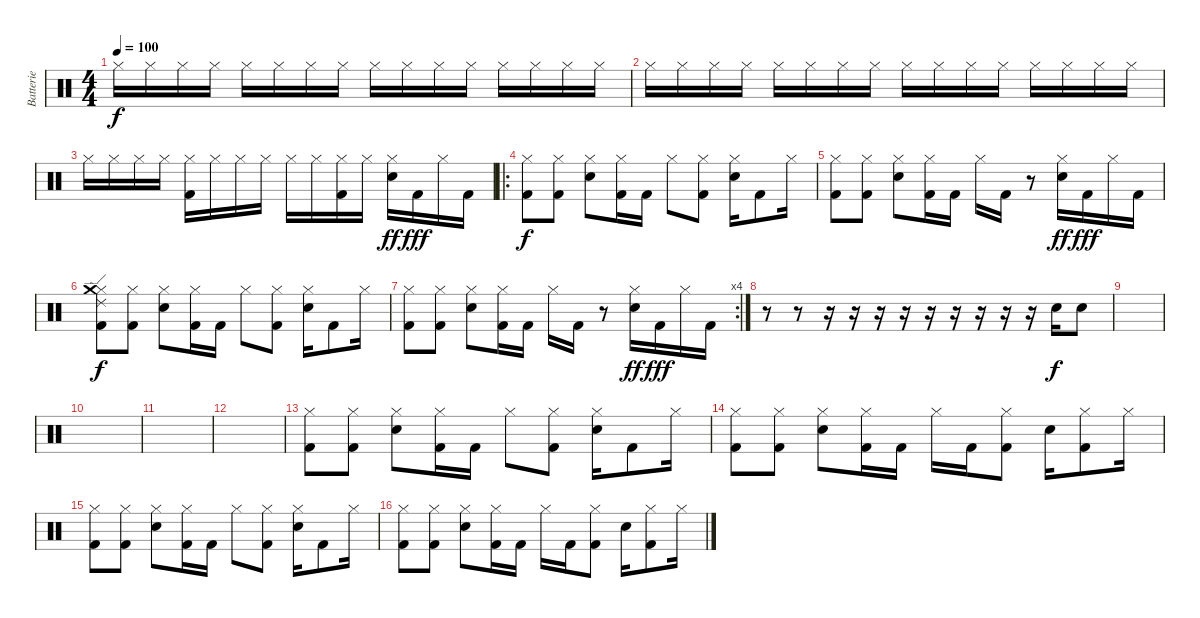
\track ("Batterie" "Batterie") {instrument percussion}
\staff {score}
\articulation defaults
\ts (4 4)
\tempo 100
\clef neutral
\ks c "Hi-Hat (closed)".16{dy f} "Hi-Hat (closed)".16 "Hi-Hat (closed)".16 "Hi-Hat (closed)".16 "Hi-Hat (closed)".16 "Hi-Hat (closed)".16 "Hi-Hat (closed)".16 "Hi-Hat (closed)".16 "Hi-Hat (closed)".16 "Hi-Hat (closed)".16 "Hi-Hat (closed)".16 "Hi-Hat (closed)".16 "Hi-Hat (closed)".16 "Hi-Hat (closed)".16 "Hi-Hat (closed)".16 "Hi-Hat (closed)".16
|
"Hi-Hat (closed)".16 "Hi-Hat (closed)".16 "Hi-Hat (closed)".16 "Hi-Hat (closed)".16 "Hi-Hat (closed)".16 "Hi-Hat (closed)".16 "Hi-Hat (closed)".16 "Hi-Hat (closed)".16 "Hi-Hat (closed)".16 "Hi-Hat (closed)".16 "Hi-Hat (closed)".16 "Hi-Hat (closed)".16 "Hi-Hat (closed)".16 "Hi-Hat (closed)".16 "Hi-Hat (closed)".16 "Hi-Hat (closed)".16 |
"Hi-Hat (closed)".16 "Hi-Hat (closed)".16 "Hi-Hat (closed)".16 "Hi-Hat (closed)".16 ("Hi-Hat (closed)" "Kick (hit) 2").16 "Hi-Hat (closed)".16 "Hi-Hat (closed)".16 "Hi-Hat (closed)".16 "Hi-Hat (closed)".16 "Hi-Hat (closed)".16 ("Hi-Hat (closed)" "Kick (hit) 2").16 "Hi-Hat (closed)".16 ("Hi-Hat (closed)" "Snare (hit) 2").16{dy ff} "Kick (hit) 2".16{dy fff} "Hi-Hat (closed)".16 "Kick (hit) 2".16 |
\ro
("Hi-Hat (closed)" "Kick (hit) 2").8{dy f} ("Hi-Hat (closed)" "Kick (hit) 2").8 ("Hi-Hat (closed)" "Snare (hit) 2").8 ("Hi-Hat (closed)" "Kick (hit) 2").16 "Kick (hit) 2".16 "Hi-Hat (closed)".8 ("Hi-Hat (closed)" "Kick (hit) 2").8 ("Hi-Hat (closed)" "Snare (hit) 2").16 "Kick (hit) 2".8 "Hi-Hat (closed)".16 |
("Hi-Hat (closed)" "Kick (hit) 2").8 ("Hi-Hat (closed)" "Kick (hit) 2").8 ("Hi-Hat (closed)" "Snare (hit) 2").8 ("Hi-Hat (closed)" "Kick (hit) 2").16 "Kick (hit) 2".16 "Hi-Hat (closed)".16 "Kick (hit) 2".16 r.8 ("Hi-Hat (closed)" "Snare (hit) 2").16{dy ff} "Kick (hit) 2".16{dy fff} "Hi-Hat (closed)".16 "Kick (hit) 2".16 |
("Hi-Hat (closed)" "Crash medium (hit)" "Ride (edge) 2" "Kick (hit) 2").8{dy f} ("Hi-Hat (closed)" "Kick (hit) 2").8 ("Hi-Hat (closed)" "Snare (hit) 2").8 ("Hi-Hat (closed)" "Kick (hit) 2").16 "Kick (hit) 2".16 "Hi-Hat (closed)".8 ("Hi-Hat (closed)" "Kick (hit) 2").8 ("Hi-Hat (closed)" "Snare (hit) 2").16 "Kick (hit) 2".8 "Hi-Hat (closed)".16 |
\rc 4
("Hi-Hat (closed)" "Kick (hit) 2").8 ("Hi-Hat (closed)" "Kick (hit) 2").8 ("Hi-Hat (closed)" "Snare (hit) 2").8 ("Hi-Hat (closed)" "Kick (hit) 2").16 "Kick (hit) 2".16 "Hi-Hat (closed)".16 "Kick (hit) 2".16 r.8 ("Hi-Hat (closed)" "Snare (hit) 2").16{dy ff} "Kick (hit) 2".16{dy fff} "Hi-Hat (closed)".16 "Kick (hit) 2".16 |
r.8 r.8 r.16 r.16 r.16 r.16 r.16 r.16 r.16 r.16 r.16 "Snare (hit) 2".16{dy f} "Snare (hit) 2".8 |
|
|
|
|
("Hi-Hat (closed)" "Kick (hit) 2").8 ("Hi-Hat (closed)" "Kick (hit) 2").8 ("Hi-Hat (closed)" "Snare (hit) 2").8 ("Hi-Hat (closed)" "Kick (hit) 2").16 "Kick (hit) 2".16 "Hi-Hat (closed)".8 ("Hi-Hat (closed)" "Kick (hit) 2").8 ("Hi-Hat (closed)" "Snare (hit) 2").16 "Kick (hit) 2".8 "Hi-Hat (closed)".16 |
("Hi-Hat (closed)" "Kick (hit) 2").8 ("Hi-Hat (closed)" "Kick (hit) 2").8 ("Hi-Hat (closed)" "Snare (hit) 2").8 ("Hi-Hat (closed)" "Kick (hit) 2").16 "Kick (hit) 2".16 "Hi-Hat (closed)".16 "Kick (hit) 2".16 ("Hi-Hat (closed)" "Kick (hit) 2").8 "Snare (hit) 2".16 ("Hi-Hat (closed)" "Kick (hit) 2").8 "Hi-Hat (closed)".16 |
("Hi-Hat (closed)" "Kick (hit) 2").8 ("Hi-Hat (closed)" "Kick (hit) 2").8 ("Hi-Hat (closed)" "Snare (hit) 2").8 ("Hi-Hat (closed)" "Kick (hit) 2").16 "Kick (hit) 2".16 "Hi-Hat (closed)".8 ("Hi-Hat (closed)" "Kick (hit) 2").8 ("Hi-Hat (closed)" "Snare (hit) 2").16 "Kick (hit) 2".8 "Hi-Hat (closed)".16 |
("Hi-Hat (closed)" "Kick (hit) 2").8 ("Hi-Hat (closed)" "Kick (hit) 2").8 ("Hi-Hat (closed)" "Snare (hit) 2").8 ("Hi-Hat (closed)" "Kick (hit) 2").16 "Kick (hit) 2".16 "Hi-Hat (closed)".16 "Kick (hit) 2".16 ("Hi-Hat (closed)" "Kick (hit) 2").8 "Snare (hit) 2".16 ("Hi-Hat (closed)" "Kick (hit) 2").8 "Hi-Hat (closed)".16
